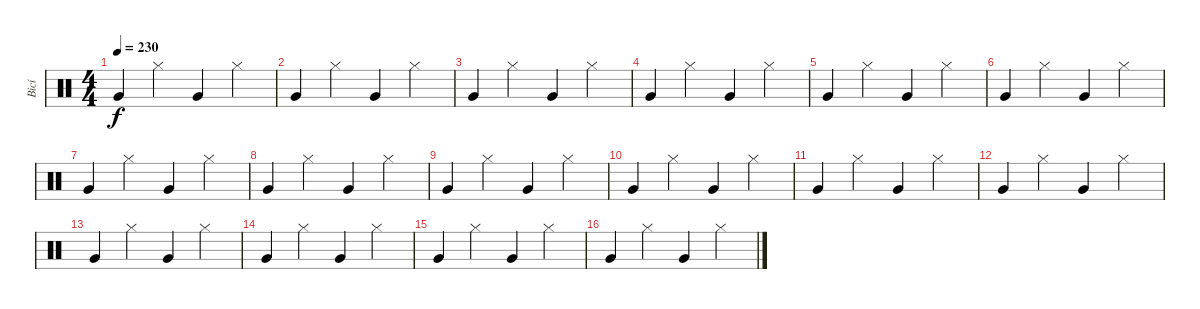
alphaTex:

\track ("Bicí" "Bicí") {instrument percussion}
\staff {score}
\articulation defaults
\ts (4 4)
\tempo 230
\clef neutral
\ks c "Very Low Tom (hit)".4{dy f} "Hi-Hat (closed)".4 "Very Low Tom (hit)".4 "Hi-Hat (closed)".4
|
"Very Low Tom (hit)".4 "Hi-Hat (closed)".4 "Very Low Tom (hit)".4 "Hi-Hat (closed)".4 |
"Very Low Tom (hit)".4 "Hi-Hat (closed)".4 "Very Low Tom (hit)".4 "Hi-Hat (closed)".4 |
"Very Low Tom (hit)".4 "Hi-Hat (closed)".4 "Very Low Tom (hit)".4 "Hi-Hat (closed)".4 |
"Very Low Tom (hit)".4 "Hi-Hat (closed)".4 "Very Low Tom (hit)".4 "Hi-Hat (closed)".4 |
"Very Low Tom (hit)".4 "Hi-Hat (closed)".4 "Very Low Tom (hit)".4 "Hi-Hat (closed)".4 |
"Very Low Tom (hit)".4 "Hi-Hat (closed)".4 "Very Low Tom (hit)".4 "Hi-Hat (closed)".4 |
"Very Low Tom (hit)".4 "Hi-Hat (closed)".4 "Very Low Tom (hit)".4 "Hi-Hat (closed)".4 |
"Very Low Tom (hit)".4 "Hi-Hat (closed)".4 "Very Low Tom (hit)".4 "Hi-Hat (closed)".4 |
"Very Low Tom (hit)".4 "Hi-Hat (closed)".4 "Very Low Tom (hit)".4 "Hi-Hat (closed)".4 |
"Very Low Tom (hit)".4 "Hi-Hat (closed)".4 "Very Low Tom (hit)".4 "Hi-Hat (closed)".4 |
"Very Low Tom (hit)".4 "Hi-Hat (closed)".4 "Very Low Tom (hit)".4 "Hi-Hat (closed)".4 |
"Very Low Tom (hit)".4 "Hi-Hat (closed)".4 "Very Low Tom (hit)".4 "Hi-Hat (closed)".4 |
"Very Low Tom (hit)".4 "Hi-Hat (closed)".4 "Very Low Tom (hit)".4 "Hi-Hat (closed)".4 |
"Very Low Tom (hit)".4 "Hi-Hat (closed)".4 "Very Low Tom (hit)".4 "Hi-Hat (closed)".4 |
"Very Low Tom (hit)".4 "Hi-Hat (closed)".4 "Very Low Tom (hit)".4 "Hi-Hat (closed)".4
